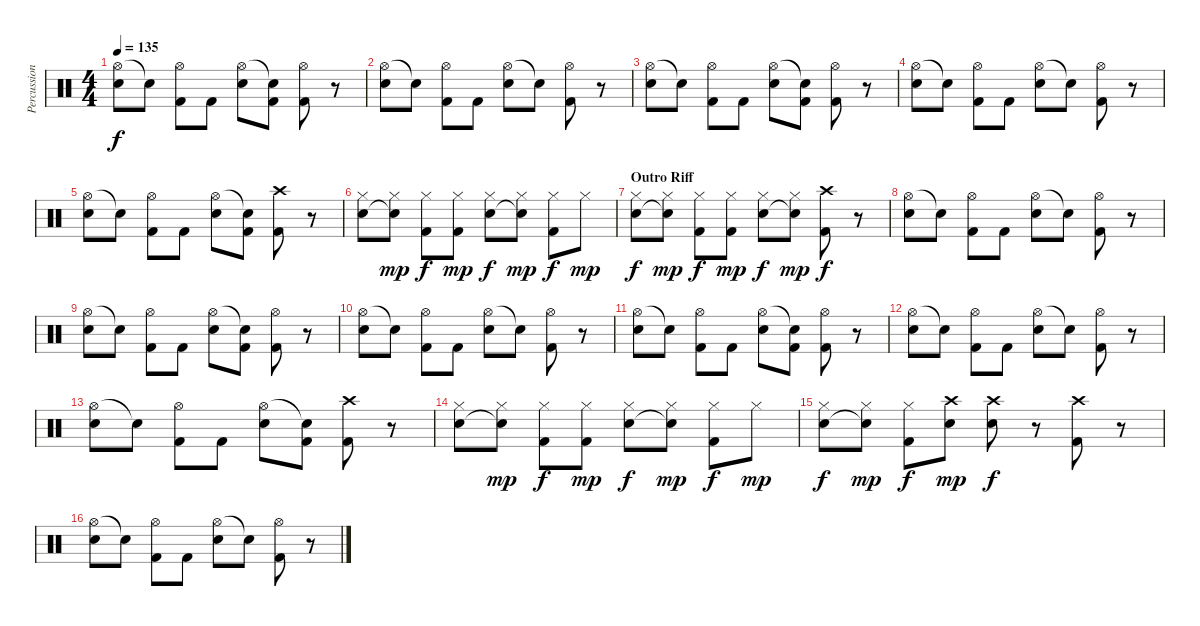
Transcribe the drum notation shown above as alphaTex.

\track ("Percussion" "Percussion") {instrument percussion}
\staff {score}
\articulation defaults
\ts (4 4)
\tempo 135
\clef neutral
\ks c
("Hi-Hat (open)" "Electric Snare (hit)").8{dy f} "Electric Snare (hit)"{t}.8 ("Hi-Hat (open)" "Kick (hit) 2").8 "Kick (hit) 2".8 ("Hi-Hat (open)" "Electric Snare (hit)").8 ("Electric Snare (hit)"{t} "Kick (hit) 2").8 ("Hi-Hat (open)" "Kick (hit) 2").8 r.8 |
("Hi-Hat (open)" "Electric Snare (hit)").8 "Electric Snare (hit)"{t}.8 ("Hi-Hat (open)" "Kick (hit) 2").8 "Kick (hit) 2".8 ("Hi-Hat (open)" "Electric Snare (hit)").8 "Electric Snare (hit)"{t}.8 ("Hi-Hat (open)" "Kick (hit) 2").8 r.8 |
("Hi-Hat (open)" "Electric Snare (hit)").8 "Electric Snare (hit)"{t}.8 ("Hi-Hat (open)" "Kick (hit) 2").8 "Kick (hit) 2".8 ("Hi-Hat (open)" "Electric Snare (hit)").8 ("Electric Snare (hit)"{t} "Kick (hit) 2").8 ("Hi-Hat (open)" "Kick (hit) 2").8 r.8 |
("Hi-Hat (open)" "Electric Snare (hit)").8 "Electric Snare (hit)"{t}.8 ("Hi-Hat (open)" "Kick (hit) 2").8 "Kick (hit) 2".8 ("Hi-Hat (open)" "Electric Snare (hit)").8 "Electric Snare (hit)"{t}.8 ("Hi-Hat (open)" "Kick (hit) 2").8 r.8 |
("Hi-Hat (open)" "Electric Snare (hit)").8 "Electric Snare (hit)"{t}.8 ("Hi-Hat (open)" "Kick (hit) 2").8 "Kick (hit) 2".8 ("Hi-Hat (open)" "Electric Snare (hit)").8 ("Electric Snare (hit)"{t} "Kick (hit) 2").8 ("Crash high (hit)" "Kick (hit) 2").8 r.8 |
("Hi-Hat (closed)" "Electric Snare (hit)").8 ("Hi-Hat (closed)" "Electric Snare (hit)"{t}).8{dy mp} ("Hi-Hat (closed)" "Kick (hit) 2").8{dy f} ("Hi-Hat (closed)" "Kick (hit) 2").8{dy mp} ("Hi-Hat (closed)" "Electric Snare (hit)").8{dy f} ("Hi-Hat (closed)" "Electric Snare (hit)"{t}).8{dy mp} ("Hi-Hat (closed)" "Kick (hit) 2").8{dy f} "Hi-Hat (closed)".8{dy mp} |
\section ("" "Outro Riff")
("Hi-Hat (closed)" "Electric Snare (hit)").8{dy f} ("Hi-Hat (closed)" "Electric Snare (hit)"{t}).8{dy mp} ("Hi-Hat (closed)" "Kick (hit) 2").8{dy f} ("Hi-Hat (closed)" "Kick (hit) 2").8{dy mp} ("Hi-Hat (closed)" "Electric Snare (hit)").8{dy f} ("Hi-Hat (closed)" "Electric Snare (hit)"{t}).8{dy mp} ("Crash high (hit)" "Kick (hit) 2").8{dy f} r.8 |
("Hi-Hat (open)" "Electric Snare (hit)").8 "Electric Snare (hit)"{t}.8 ("Hi-Hat (open)" "Kick (hit) 2").8 "Kick (hit) 2".8 ("Hi-Hat (open)" "Electric Snare (hit)").8 "Electric Snare (hit)"{t}.8 ("Hi-Hat (open)" "Kick (hit) 2").8 r.8 |
("Hi-Hat (open)" "Electric Snare (hit)").8 "Electric Snare (hit)"{t}.8 ("Hi-Hat (open)" "Kick (hit) 2").8 "Kick (hit) 2".8 ("Hi-Hat (open)" "Electric Snare (hit)").8 ("Electric Snare (hit)"{t} "Kick (hit) 2").8 ("Hi-Hat (open)" "Kick (hit) 2").8 r.8 |
("Hi-Hat (open)" "Electric Snare (hit)").8 "Electric Snare (hit)"{t}.8 ("Hi-Hat (open)" "Kick (hit) 2").8 "Kick (hit) 2".8 ("Hi-Hat (open)" "Electric Snare (hit)").8 "Electric Snare (hit)"{t}.8 ("Hi-Hat (open)" "Kick (hit) 2").8 r.8 |
("Hi-Hat (open)" "Electric Snare (hit)").8 "Electric Snare (hit)"{t}.8 ("Hi-Hat (open)" "Kick (hit) 2").8 "Kick (hit) 2".8 ("Hi-Hat (open)" "Electric Snare (hit)").8 ("Electric Snare (hit)"{t} "Kick (hit) 2").8 ("Hi-Hat (open)" "Kick (hit) 2").8 r.8 |
("Hi-Hat (open)" "Electric Snare (hit)").8 "Electric Snare (hit)"{t}.8 ("Hi-Hat (open)" "Kick (hit) 2").8 "Kick (hit) 2".8 ("Hi-Hat (open)" "Electric Snare (hit)").8 "Electric Snare (hit)"{t}.8 ("Hi-Hat (open)" "Kick (hit) 2").8 r.8 |
("Hi-Hat (open)" "Electric Snare (hit)").8 "Electric Snare (hit)"{t}.8 ("Hi-Hat (open)" "Kick (hit) 2").8 "Kick (hit) 2".8 ("Hi-Hat (open)" "Electric Snare (hit)").8 ("Electric Snare (hit)"{t} "Kick (hit) 2").8 ("Crash high (hit)" "Kick (hit) 2").8 r.8 |
("Hi-Hat (closed)" "Electric Snare (hit)").8 ("Hi-Hat (closed)" "Electric Snare (hit)"{t}).8{dy mp} ("Hi-Hat (closed)" "Kick (hit) 2").8{dy f} ("Hi-Hat (closed)" "Kick (hit) 2").8{dy mp} ("Hi-Hat (closed)" "Electric Snare (hit)").8{dy f} ("Hi-Hat (closed)" "Electric Snare (hit)"{t}).8{dy mp} ("Hi-Hat (closed)" "Kick (hit) 2").8{dy f} "Hi-Hat (closed)".8{dy mp} |
("Hi-Hat (closed)" "Electric Snare (hit)").8{dy f} ("Hi-Hat (closed)" "Electric Snare (hit)"{t}).8{dy mp} ("Hi-Hat (closed)" "Kick (hit) 2").8{dy f} ("Crash high (hit)" "Electric Snare (hit)").8{dy mp} ("Crash high (hit)" "Electric Snare (hit)").8{dy f} r.8 ("Crash high (hit)" "Kick (hit) 2").8 r.8 |
("Hi-Hat (open)" "Electric Snare (hit)").8 "Electric Snare (hit)"{t}.8 ("Hi-Hat (open)" "Kick (hit) 2").8 "Kick (hit) 2".8 ("Hi-Hat (open)" "Electric Snare (hit)").8 "Electric Snare (hit)"{t}.8 ("Hi-Hat (open)" "Kick (hit) 2").8 r.8
